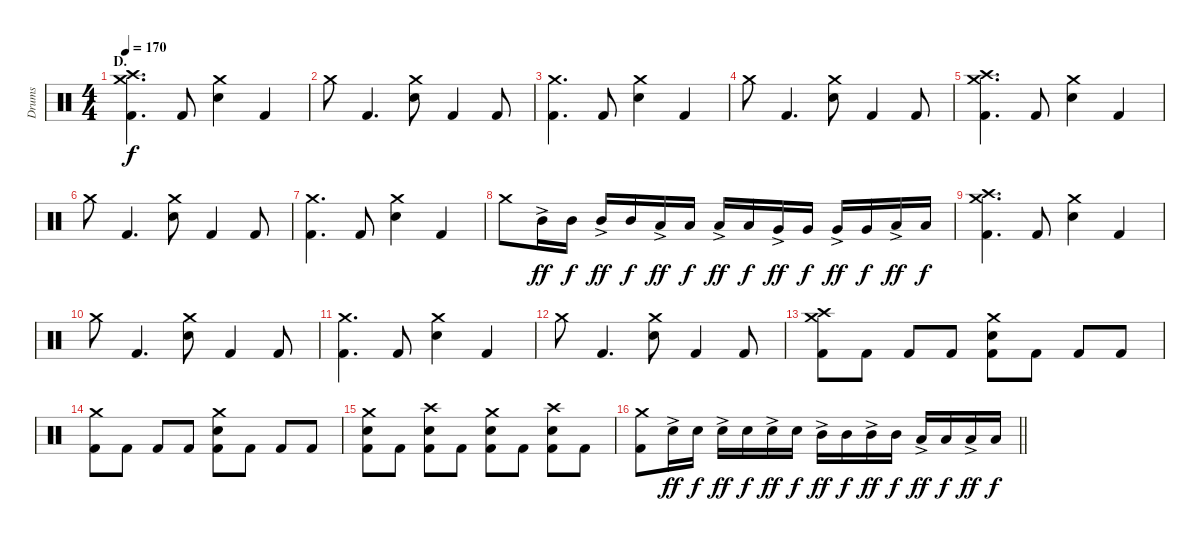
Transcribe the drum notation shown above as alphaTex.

\track ("Drums" "Drums") {instrument percussion}
\staff {score}
\articulation defaults
\ts (4 4)
\section ("" "D.")
\tempo 170
\clef neutral
\ks c
("Crash medium (hit)" "Crash high (hit)" "Kick (hit) 2").4{d dy f} "Kick (hit) 2".8 ("Crash medium (hit)" "Electric Snare (hit)").4 "Kick (hit) 2".4 |
"Crash medium (hit)".8 "Kick (hit) 2".4{d} ("Crash medium (hit)" "Electric Snare (hit)").8 "Kick (hit) 2".4 "Kick (hit) 2".8 |
("Crash medium (hit)" "Kick (hit) 2").4{d} "Kick (hit) 2".8 ("Crash medium (hit)" "Electric Snare (hit)").4 "Kick (hit) 2".4 |
"Crash medium (hit)".8 "Kick (hit) 2".4{d} ("Crash medium (hit)" "Electric Snare (hit)").8 "Kick (hit) 2".4 "Kick (hit) 2".8 |
("Crash medium (hit)" "Crash high (hit)" "Kick (hit) 2").4{d} "Kick (hit) 2".8 ("Crash medium (hit)" "Electric Snare (hit)").4 "Kick (hit) 2".4 |
"Crash medium (hit)".8 "Kick (hit) 2".4{d} ("Crash medium (hit)" "Electric Snare (hit)").8 "Kick (hit) 2".4 "Kick (hit) 2".8 |
("Crash medium (hit)" "Kick (hit) 2").4{d} "Kick (hit) 2".8 ("Crash medium (hit)" "Electric Snare (hit)").4 "Kick (hit) 2".4 |
"Crash medium (hit)".8 "Mid Tom (hit)"{ac}.16{dy ff} "Mid Tom (hit)".16{dy f} "Mid Tom (hit)"{ac}.16{dy ff} "Mid Tom (hit)".16{dy f} "Low Tom (hit)"{ac}.16{dy ff} "Low Tom (hit)".16{dy f} "Low Tom (hit)"{ac}.16{dy ff} "Low Tom (hit)".16{dy f} "Very Low Tom (hit)"{ac}.16{dy ff} "Very Low Tom (hit)".16{dy f} "Very Low Tom (hit)"{ac}.16{dy ff} "Very Low Tom (hit)".16{dy f} "Low Floor Tom (hit)"{ac}.16{dy ff} "Low Floor Tom (hit)".16{dy f} |
("Crash medium (hit)" "Crash high (hit)" "Kick (hit) 2").4{d} "Kick (hit) 2".8 ("Crash medium (hit)" "Electric Snare (hit)").4 "Kick (hit) 2".4 |
"Crash medium (hit)".8 "Kick (hit) 2".4{d} ("Crash medium (hit)" "Electric Snare (hit)").8 "Kick (hit) 2".4 "Kick (hit) 2".8 |
("Crash medium (hit)" "Kick (hit) 2").4{d} "Kick (hit) 2".8 ("Crash medium (hit)" "Electric Snare (hit)").4 "Kick (hit) 2".4 |
"Crash medium (hit)".8 "Kick (hit) 2".4{d} ("Crash medium (hit)" "Electric Snare (hit)").8 "Kick (hit) 2".4 "Kick (hit) 2".8 |
("Crash medium (hit)" "Crash high (hit)" "Kick (hit) 2").8 "Kick (hit) 2".8 "Kick (hit) 2".8 "Kick (hit) 2".8 ("Crash medium (hit)" "Electric Snare (hit)" "Kick (hit) 2").8 "Kick (hit) 2".8 "Kick (hit) 2".8 "Kick (hit) 2".8 |
("Crash medium (hit)" "Kick (hit) 2").8 "Kick (hit) 2".8 "Kick (hit) 2".8 "Kick (hit) 2".8 ("Crash medium (hit)" "Electric Snare (hit)" "Kick (hit) 2").8 "Kick (hit) 2".8 "Kick (hit) 2".8 "Kick (hit) 2".8 |
("Crash medium (hit)" "Electric Snare (hit)" "Kick (hit) 2").8 "Kick (hit) 2".8 ("Crash high (hit)" "Electric Snare (hit)" "Kick (hit) 2").8 "Kick (hit) 2".8 ("Crash medium (hit)" "Electric Snare (hit)" "Kick (hit) 2").8 "Kick (hit) 2".8 ("Crash high (hit)" "Electric Snare (hit)" "Kick (hit) 2").8 "Kick (hit) 2".8 |
\barLineRight lightlight
("Crash medium (hit)" "Kick (hit) 2").8 "Electric Snare (hit)"{ac}.16{dy ff} "Electric Snare (hit)".16{dy f} "Electric Snare (hit)"{ac}.16{dy ff} "Electric Snare (hit)".16{dy f} "Electric Snare (hit)"{ac}.16{dy ff} "Electric Snare (hit)".16{dy f} "Mid Tom (hit)"{ac}.16{dy ff} "Mid Tom (hit)".16{dy f} "Mid Tom (hit)"{ac}.16{dy ff} "Mid Tom (hit)".16{dy f} "Low Tom (hit)"{ac}.16{dy ff} "Low Tom (hit)".16{dy f} "Low Tom (hit)"{ac}.16{dy ff} "Low Tom (hit)".16{dy f}
